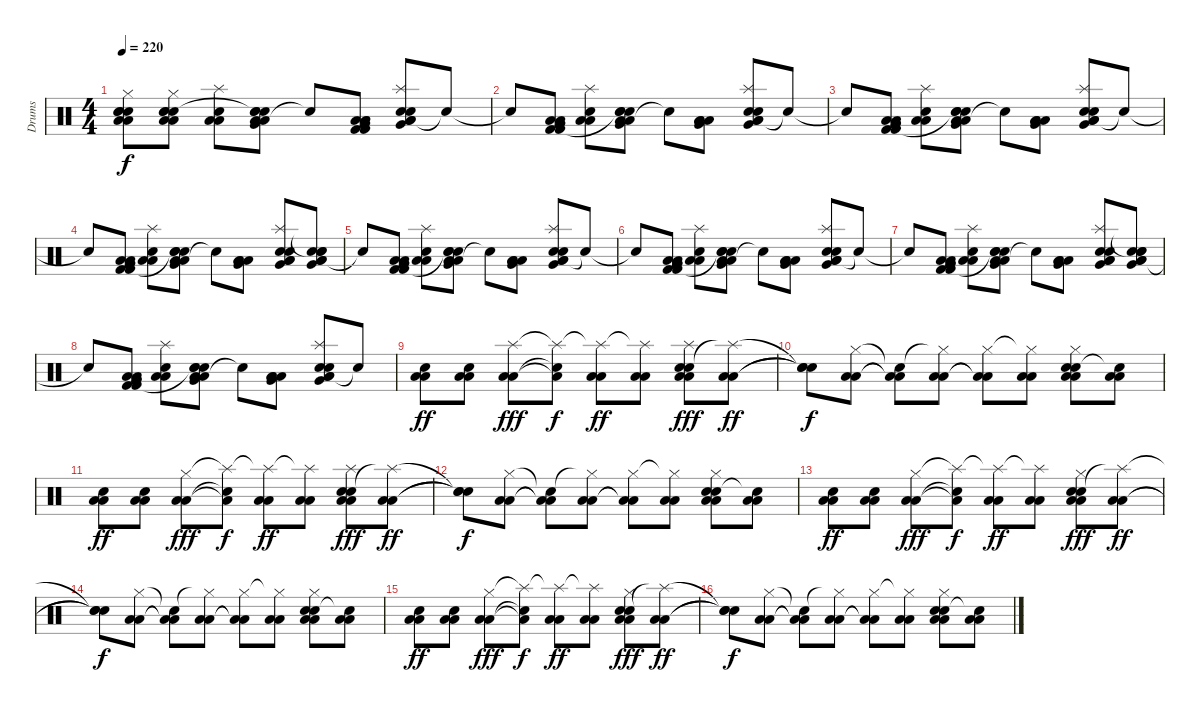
\track ("Drums" "Drums") {instrument percussion}
\staff {score}
\articulation defaults
\ts (4 4)
\tempo 220
\clef neutral
\ks c
("Low Floor Tom (hit)" "Low Floor Tom (hit)" "Electric Snare (hit)" "Snare (hit) 2" "Electric Snare (hit)" "Hi-Hat (closed)").8{dy f} ("Low Floor Tom (hit)" "Low Floor Tom (hit)" "Electric Snare (hit)" "Snare (hit) 2" "Electric Snare (hit)" "Hi-Hat (closed)").8 ("Low Floor Tom (hit)" "Low Floor Tom (hit)" "Electric Snare (hit)" "Splash (hit)").8 ("Low Floor Tom (hit)" "Low Floor Tom (hit)" "Electric Snare (hit)" "Snare (hit) 2" "Snare (hit)"{t} "Very Low Tom (hit)").8 "Snare (hit)"{t}.8 ("Low Floor Tom (hit)" "Low Floor Tom (hit)" "Low Tom (hit)" "Kick (hit) 2" "Kick (hit) 2" "Very Low Tom (hit)").8 ("Low Floor Tom (hit)" "Low Floor Tom (hit)" "Electric Snare (hit)" "Snare (hit) 2" "Splash (hit)" "Very Low Tom (hit)").8 "Snare (hit)"{t}.8 |
"Snare (hit)"{t}.8 ("Low Floor Tom (hit)" "Very Low Tom (hit)" "Low Tom (hit)" "Kick (hit) 2" "Kick (hit) 2" "Very Low Tom (hit)").8 ("Low Floor Tom (hit)" "Low Floor Tom (hit)" "Electric Snare (hit)" "Splash (hit)").8 ("Low Floor Tom (hit)" "Low Floor Tom (hit)" "Electric Snare (hit)" "Snare (hit) 2" "Snare (hit)"{t} "Very Low Tom (hit)").8 "Snare (hit)"{t}.8 ("Low Floor Tom (hit)" "Low Floor Tom (hit)" "Low Tom (hit)" "Very Low Tom (hit)").8 ("Low Floor Tom (hit)" "Low Floor Tom (hit)" "Electric Snare (hit)" "Snare (hit) 2" "Splash (hit)" "Very Low Tom (hit)").8 "Snare (hit)"{t}.8 |
"Snare (hit)"{t}.8 ("Low Floor Tom (hit)" "Very Low Tom (hit)" "Low Tom (hit)" "Kick (hit) 2" "Kick (hit) 2" "Very Low Tom (hit)").8 ("Low Floor Tom (hit)" "Low Floor Tom (hit)" "Electric Snare (hit)" "Splash (hit)").8 ("Low Floor Tom (hit)" "Low Floor Tom (hit)" "Electric Snare (hit)" "Snare (hit) 2" "Snare (hit)"{t} "Very Low Tom (hit)").8 "Snare (hit)"{t}.8 ("Low Floor Tom (hit)" "Low Floor Tom (hit)" "Low Tom (hit)" "Very Low Tom (hit)").8 ("Low Floor Tom (hit)" "Low Floor Tom (hit)" "Electric Snare (hit)" "Snare (hit) 2" "Splash (hit)" "Very Low Tom (hit)").8 "Snare (hit)"{t}.8 |
"Snare (hit)"{t}.8 ("Low Floor Tom (hit)" "Very Low Tom (hit)" "Low Tom (hit)" "Kick (hit) 2" "Kick (hit) 2" "Very Low Tom (hit)").8 ("Low Floor Tom (hit)" "Low Floor Tom (hit)" "Electric Snare (hit)" "Splash (hit)").8 ("Low Floor Tom (hit)" "Low Floor Tom (hit)" "Electric Snare (hit)" "Snare (hit) 2" "Snare (hit)"{t} "Very Low Tom (hit)").8 "Snare (hit)"{t}.8 ("Low Floor Tom (hit)" "Low Floor Tom (hit)" "Low Tom (hit)" "Very Low Tom (hit)").8 ("Low Floor Tom (hit)" "Low Floor Tom (hit)" "Electric Snare (hit)" "Snare (hit) 2" "Splash (hit)" "Very Low Tom (hit)").8 ("Low Floor Tom (hit)" "Low Floor Tom (hit)" "Electric Snare (hit)" "Snare (hit) 2" "Snare (hit)"{t} "Very Low Tom (hit)").8 |
"Snare (hit)"{t}.8 ("Low Floor Tom (hit)" "Very Low Tom (hit)" "Low Tom (hit)" "Kick (hit) 2" "Kick (hit) 2" "Very Low Tom (hit)").8 ("Low Floor Tom (hit)" "Low Floor Tom (hit)" "Electric Snare (hit)" "Splash (hit)").8 ("Low Floor Tom (hit)" "Low Floor Tom (hit)" "Electric Snare (hit)" "Snare (hit) 2" "Snare (hit)"{t} "Very Low Tom (hit)").8 "Snare (hit)"{t}.8 ("Low Floor Tom (hit)" "Low Floor Tom (hit)" "Low Tom (hit)" "Very Low Tom (hit)").8 ("Low Floor Tom (hit)" "Low Floor Tom (hit)" "Electric Snare (hit)" "Snare (hit) 2" "Splash (hit)" "Very Low Tom (hit)").8 "Snare (hit)"{t}.8 |
"Snare (hit)"{t}.8 ("Low Floor Tom (hit)" "Very Low Tom (hit)" "Low Tom (hit)" "Kick (hit) 2" "Kick (hit) 2" "Very Low Tom (hit)").8 ("Low Floor Tom (hit)" "Low Floor Tom (hit)" "Electric Snare (hit)" "Splash (hit)").8 ("Low Floor Tom (hit)" "Low Floor Tom (hit)" "Electric Snare (hit)" "Snare (hit) 2" "Snare (hit)"{t} "Very Low Tom (hit)").8 "Snare (hit)"{t}.8 ("Low Floor Tom (hit)" "Low Floor Tom (hit)" "Low Tom (hit)" "Very Low Tom (hit)").8 ("Low Floor Tom (hit)" "Low Floor Tom (hit)" "Electric Snare (hit)" "Snare (hit) 2" "Splash (hit)" "Very Low Tom (hit)").8 "Snare (hit)"{t}.8 |
"Snare (hit)"{t}.8 ("Low Floor Tom (hit)" "Very Low Tom (hit)" "Low Tom (hit)" "Kick (hit) 2" "Kick (hit) 2" "Very Low Tom (hit)").8 ("Low Floor Tom (hit)" "Low Floor Tom (hit)" "Electric Snare (hit)" "Splash (hit)").8 ("Low Floor Tom (hit)" "Low Floor Tom (hit)" "Electric Snare (hit)" "Snare (hit) 2" "Snare (hit)"{t} "Very Low Tom (hit)").8 "Snare (hit)"{t}.8 ("Low Floor Tom (hit)" "Low Floor Tom (hit)" "Low Tom (hit)" "Very Low Tom (hit)").8 ("Low Floor Tom (hit)" "Low Floor Tom (hit)" "Electric Snare (hit)" "Snare (hit) 2" "Splash (hit)" "Very Low Tom (hit)").8 ("Low Floor Tom (hit)" "Low Floor Tom (hit)" "Electric Snare (hit)" "Snare (hit) 2" "Snare (hit)"{t} "Very Low Tom (hit)").8 |
"Snare (hit)"{t}.8 ("Low Floor Tom (hit)" "Very Low Tom (hit)" "Low Tom (hit)" "Kick (hit) 2" "Kick (hit) 2" "Very Low Tom (hit)").8 ("Low Floor Tom (hit)" "Low Floor Tom (hit)" "Electric Snare (hit)" "Splash (hit)").8 ("Low Floor Tom (hit)" "Low Floor Tom (hit)" "Electric Snare (hit)" "Snare (hit) 2" "Snare (hit)"{t} "Very Low Tom (hit)").8 "Snare (hit)"{t}.8 ("Low Floor Tom (hit)" "Low Floor Tom (hit)" "Low Tom (hit)" "Very Low Tom (hit)").8 ("Low Floor Tom (hit)" "Low Floor Tom (hit)" "Electric Snare (hit)" "Snare (hit) 2" "Splash (hit)" "Very Low Tom (hit)").8 "Snare (hit)"{t}.8 |
("Low Floor Tom (hit)" "Low Floor Tom (hit)" "Electric Snare (hit)").8{dy ff} ("Low Floor Tom (hit)" "Low Floor Tom (hit)" "Electric Snare (hit)").8 ("Low Floor Tom (hit)" "Low Floor Tom (hit)" "Splash (hit)").8{dy fff} ("Low Floor Tom (hit)"{t} "Snare (hit)"{t} "Splash (hit)"{t}).8{dy f} ("Low Floor Tom (hit)" "Low Floor Tom (hit)" "Splash (hit)"{t}).8{dy ff} ("Low Floor Tom (hit)" "Low Floor Tom (hit)" "Splash (hit)"{t}).8 ("Low Floor Tom (hit)" "Low Floor Tom (hit)" "Electric Snare (hit)" "Snare (hit) 2" "Splash (hit)").8{dy fff} ("Low Floor Tom (hit)" "Low Floor Tom (hit)" "Splash (hit)"{t}).8{dy ff} |
("Snare (hit)"{t} "Snare (hit)"{t} "Snare (hit)"{t}).8{dy f} ("Low Floor Tom (hit)" "Low Floor Tom (hit)" "Hi-Hat (closed)").8 ("Low Floor Tom (hit)"{t} "Low Floor Tom (hit)"{t} "Snare (hit)"{t}).8 ("Low Floor Tom (hit)" "Low Floor Tom (hit)" "Hi-Hat (closed)"{t}).8 ("Low Floor Tom (hit)"{t} "Low Floor Tom (hit)"{t} "Hi-Hat (closed)").8 ("Low Floor Tom (hit)" "Low Floor Tom (hit)" "Hi-Hat (closed)"{t}).8 ("Low Floor Tom (hit)" "Low Floor Tom (hit)" "Electric Snare (hit)" "Snare (hit) 2" "Hi-Hat (closed)").8 ("Low Floor Tom (hit)" "Low Floor Tom (hit)" "Snare (hit)"{t}).8 |
("Low Floor Tom (hit)" "Low Floor Tom (hit)" "Electric Snare (hit)").8{dy ff} ("Low Floor Tom (hit)" "Low Floor Tom (hit)" "Electric Snare (hit)").8 ("Low Floor Tom (hit)" "Low Floor Tom (hit)" "Hi-Hat (closed)").8{dy fff} ("Low Floor Tom (hit)"{t} "Snare (hit)"{t} "Splash (hit)"{t}).8{dy f} ("Low Floor Tom (hit)" "Low Floor Tom (hit)" "Splash (hit)"{t}).8{dy ff} ("Low Floor Tom (hit)" "Low Floor Tom (hit)" "Splash (hit)"{t}).8 ("Low Floor Tom (hit)" "Low Floor Tom (hit)" "Electric Snare (hit)" "Snare (hit) 2" "Splash (hit)").8{dy fff} ("Low Floor Tom (hit)" "Low Floor Tom (hit)" "Splash (hit)"{t}).8{dy ff} |
("Snare (hit)"{t} "Snare (hit)"{t} "Snare (hit)"{t}).8{dy f} ("Low Floor Tom (hit)" "Low Floor Tom (hit)" "Hi-Hat (closed)").8 ("Low Floor Tom (hit)"{t} "Low Floor Tom (hit)"{t} "Snare (hit)"{t}).8 ("Low Floor Tom (hit)" "Low Floor Tom (hit)" "Hi-Hat (closed)"{t}).8 ("Low Floor Tom (hit)"{t} "Low Floor Tom (hit)"{t} "Hi-Hat (closed)").8 ("Low Floor Tom (hit)" "Low Floor Tom (hit)" "Hi-Hat (closed)"{t}).8 ("Low Floor Tom (hit)" "Low Floor Tom (hit)" "Electric Snare (hit)" "Snare (hit) 2" "Hi-Hat (closed)").8 ("Low Floor Tom (hit)" "Low Floor Tom (hit)" "Snare (hit)"{t}).8 |
("Low Floor Tom (hit)" "Low Floor Tom (hit)" "Electric Snare (hit)").8{dy ff} ("Low Floor Tom (hit)" "Low Floor Tom (hit)" "Electric Snare (hit)").8 ("Low Floor Tom (hit)" "Low Floor Tom (hit)" "Hi-Hat (closed)").8{dy fff} ("Low Floor Tom (hit)"{t} "Snare (hit)"{t} "Splash (hit)"{t}).8{dy f} ("Low Floor Tom (hit)" "Low Floor Tom (hit)" "Splash (hit)"{t}).8{dy ff} ("Low Floor Tom (hit)" "Low Floor Tom (hit)" "Splash (hit)"{t}).8 ("Low Floor Tom (hit)" "Low Floor Tom (hit)" "Electric Snare (hit)" "Snare (hit) 2" "Hi-Hat (closed)").8{dy fff} ("Low Floor Tom (hit)" "Low Floor Tom (hit)" "Splash (hit)"{t}).8{dy ff} |
("Snare (hit)"{t} "Snare (hit)"{t} "Snare (hit)"{t}).8{dy f} ("Low Floor Tom (hit)" "Low Floor Tom (hit)" "Hi-Hat (closed)").8 ("Low Floor Tom (hit)"{t} "Low Floor Tom (hit)"{t} "Snare (hit)"{t}).8 ("Low Floor Tom (hit)" "Low Floor Tom (hit)" "Hi-Hat (closed)"{t}).8 ("Low Floor Tom (hit)"{t} "Low Floor Tom (hit)"{t} "Hi-Hat (closed)").8 ("Low Floor Tom (hit)" "Low Floor Tom (hit)" "Hi-Hat (closed)"{t}).8 ("Low Floor Tom (hit)" "Low Floor Tom (hit)" "Electric Snare (hit)" "Snare (hit) 2" "Hi-Hat (closed)").8 ("Low Floor Tom (hit)" "Low Floor Tom (hit)" "Snare (hit)"{t}).8 |
("Low Floor Tom (hit)" "Low Floor Tom (hit)" "Electric Snare (hit)").8{dy ff} ("Low Floor Tom (hit)" "Low Floor Tom (hit)" "Electric Snare (hit)").8 ("Low Floor Tom (hit)" "Low Floor Tom (hit)" "Hi-Hat (closed)").8{dy fff} ("Low Floor Tom (hit)"{t} "Snare (hit)"{t} "Splash (hit)"{t}).8{dy f} ("Low Floor Tom (hit)" "Low Floor Tom (hit)" "Splash (hit)"{t}).8{dy ff} ("Low Floor Tom (hit)" "Low Floor Tom (hit)" "Splash (hit)"{t}).8 ("Low Floor Tom (hit)" "Low Floor Tom (hit)" "Electric Snare (hit)" "Snare (hit) 2" "Hi-Hat (closed)").8{dy fff} ("Low Floor Tom (hit)" "Low Floor Tom (hit)" "Splash (hit)"{t}).8{dy ff} |
("Snare (hit)"{t} "Snare (hit)"{t} "Snare (hit)"{t}).8{dy f} ("Low Floor Tom (hit)" "Low Floor Tom (hit)" "Hi-Hat (closed)").8 ("Low Floor Tom (hit)"{t} "Low Floor Tom (hit)"{t} "Snare (hit)"{t}).8 ("Low Floor Tom (hit)" "Low Floor Tom (hit)" "Hi-Hat (closed)"{t}).8 ("Low Floor Tom (hit)"{t} "Low Floor Tom (hit)"{t} "Hi-Hat (closed)").8 ("Low Floor Tom (hit)" "Low Floor Tom (hit)" "Hi-Hat (closed)"{t}).8 ("Low Floor Tom (hit)" "Low Floor Tom (hit)" "Electric Snare (hit)" "Snare (hit) 2" "Hi-Hat (closed)").8 ("Low Floor Tom (hit)" "Low Floor Tom (hit)" "Snare (hit)"{t}).8
